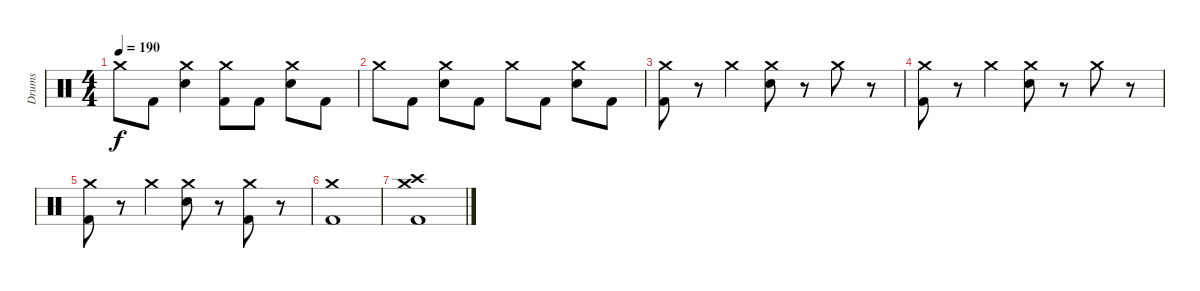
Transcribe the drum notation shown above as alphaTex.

\track ("Drums" "Drums") {instrument percussion}
\staff {score}
\articulation defaults
\ts (4 4)
\tempo 190
\clef neutral
\ks c "Crash medium (hit)".8{dy f} "Kick (hit) 2".8
("Crash medium (hit)" "Snare (hit) 2").4 ("Crash medium (hit)" "Kick (hit) 2").8 "Kick (hit) 2".8 ("Crash medium (hit)" "Snare (hit) 2").8 "Kick (hit) 2".8 |
"Crash medium (hit)".8 "Kick (hit) 2".8 ("Crash medium (hit)" "Snare (hit) 2").8 "Kick (hit) 2".8 "Crash medium (hit)".8 "Kick (hit) 2".8 ("Crash medium (hit)" "Snare (hit) 2").8 "Kick (hit) 2".8 |
("Crash medium (hit)" "Kick (hit) 2").8 r.8 "Crash medium (hit)".4 ("Crash medium (hit)" "Snare (hit) 2").8 r.8 "Crash medium (hit)".8 r.8 |
("Crash medium (hit)" "Kick (hit) 2").8 r.8 "Crash medium (hit)".4 ("Crash medium (hit)" "Snare (hit) 2").8 r.8 "Crash medium (hit)".8 r.8 |
("Crash medium (hit)" "Kick (hit) 2").8 r.8 "Crash medium (hit)".4 ("Crash medium (hit)" "Snare (hit) 2").8 r.8 ("Crash medium (hit)" "Kick (hit) 2").8 r.8 |
("Crash medium (hit)" "Kick (hit) 2").1 |
("Crash high (hit)" "Crash medium (hit)" "Kick (hit) 2").1
